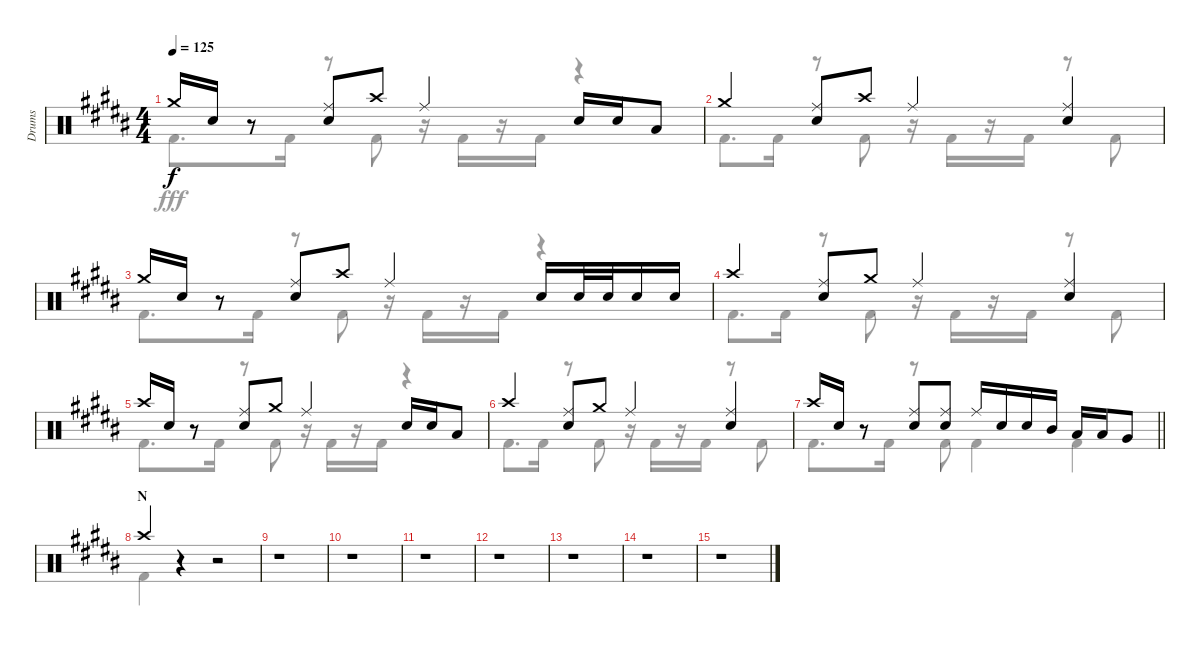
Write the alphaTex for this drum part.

\track ("Drums" "Drums") {instrument percussion}
\staff {score}
\articulation defaults
\voice
\ts (4 4)
\tempo 125
\clef neutral
\ks b "Crash medium (hit)".16{dy f} "Snare (hit) 2".16
r.8 ("Ride (middle)" "Snare (hit) 2").8 "Crash high (hit)".8 "Ride (middle)".4 "Snare (hit) 2".16 "Snare (hit) 2".16 "Low Tom (hit)".8 |
"Crash medium (hit)".4 ("Ride (middle)" "Snare (hit) 2").8 "Crash high (hit)".8 "Ride (middle)".4 ("Ride (middle)" "Snare (hit) 2").4 |
"Crash medium (hit)".16 "Snare (hit) 2".16 r.8 ("Ride (middle)" "Snare (hit) 2").8 "Crash high (hit)".8 "Ride (middle)".4 "Snare (hit) 2".16 "Snare (hit) 2".32 "Snare (hit) 2".32 "Snare (hit) 2".16 "Snare (hit) 2".16 |
"Crash high (hit)".4 ("Ride (middle)" "Snare (hit) 2").8 "Crash medium (hit)".8 "Ride (middle)".4 ("Ride (middle)" "Snare (hit) 2").4 |
"Crash high (hit)".16 "Snare (hit) 2".16 r.8 ("Ride (middle)" "Snare (hit) 2").8 "Crash medium (hit)".8 "Ride (middle)".4 "Snare (hit) 2".16 "Snare (hit) 2".16 "Low Tom (hit)".8 |
"Crash high (hit)".4 ("Ride (middle)" "Snare (hit) 2").8 "Crash medium (hit)".8 "Ride (middle)".4 ("Ride (middle)" "Snare (hit) 2").4 |
\barLineRight lightlight "Crash high (hit)".16 "Snare (hit) 2".16
r.8 ("Ride (middle)" "Snare (hit) 2").8 ("Ride (middle)" "Snare (hit) 2").8 "Ride (middle)".16 "Snare (hit) 2".16 "Snare (hit) 2".16 "Mid Tom (hit)".16 "Low Tom (hit)".16 "Low Tom (hit)".16 "Very Low Tom (hit)".8 |
\section ("" "N")
"Crash high (hit)".4 r.4 r.2 |
r.1 |
r.1 |
r.1 |
r.1 |
r.1 |
r.1 |
r.1
\voice
\clef neutral
\ottava regular
\simile none
\ks b "Kick (hit) 2".8{d dy fff} "Kick (hit) 2".16
r.8 "Kick (hit) 2".8 r.16 "Kick (hit) 2".16 r.16 "Kick (hit) 2".16 r.4 |
"Kick (hit) 2".8{d} "Kick (hit) 2".16 r.8 "Kick (hit) 2".8 r.16 "Kick (hit) 2".16 r.16 "Kick (hit) 2".16 r.8 "Kick (hit) 2".8 |
"Kick (hit) 2".8{d} "Kick (hit) 2".16 r.8 "Kick (hit) 2".8 r.16 "Kick (hit) 2".16 r.16 "Kick (hit) 2".16 r.4 |
"Kick (hit) 2".8{d} "Kick (hit) 2".16 r.8 "Kick (hit) 2".8 r.16 "Kick (hit) 2".16 r.16 "Kick (hit) 2".16 r.8 "Kick (hit) 2".8 |
"Kick (hit) 2".8{d} "Kick (hit) 2".16 r.8 "Kick (hit) 2".8 r.16 "Kick (hit) 2".16 r.16 "Kick (hit) 2".16 r.4 |
"Kick (hit) 2".8{d} "Kick (hit) 2".16 r.8 "Kick (hit) 2".8 r.16 "Kick (hit) 2".16 r.16 "Kick (hit) 2".16 r.8 "Kick (hit) 2".8 |
\barLineRight lightlight "Kick (hit) 2".8{d} "Kick (hit) 2".16
r.8 "Kick (hit) 2".8 "Kick (hit) 2".4 "Kick (hit) 2".4 |
"Kick (hit) 2".4 r.4 r.2 |
r.1 |
r.1 |
r.1 |
r.1 |
r.1 |
r.1 |
r.1
